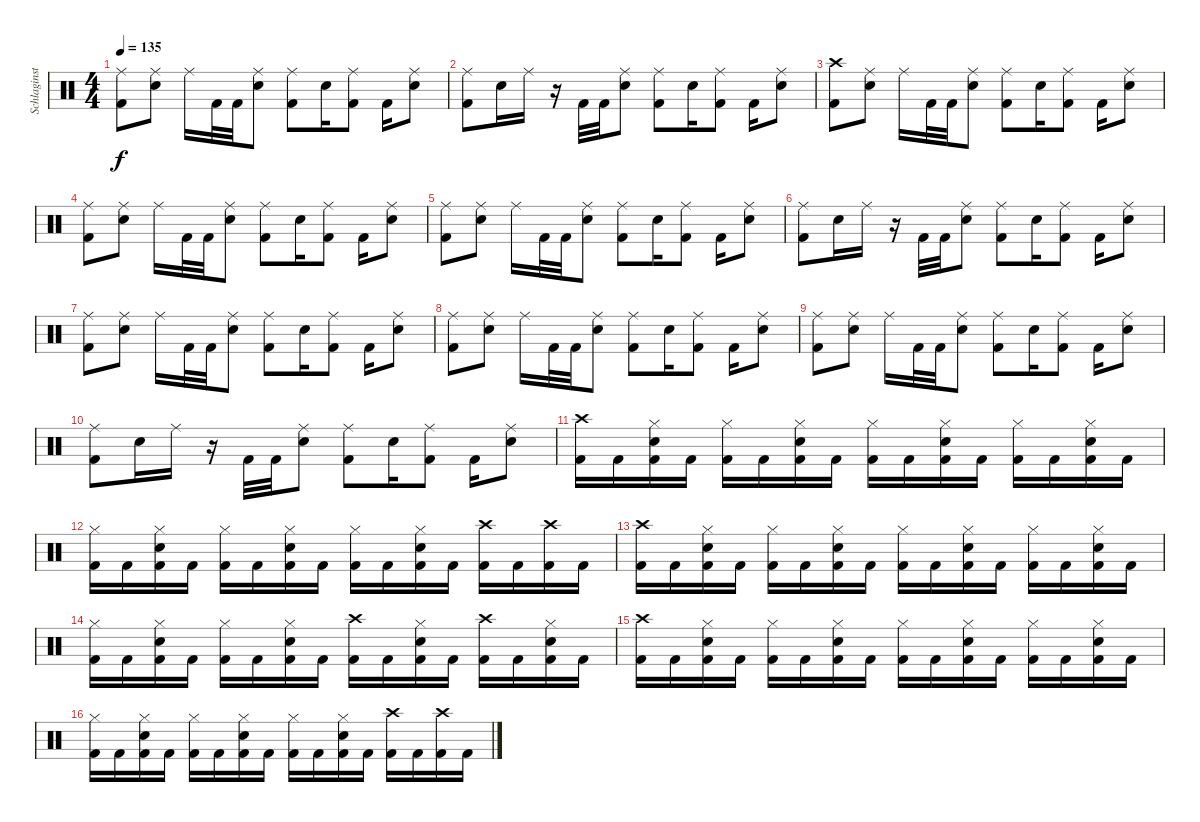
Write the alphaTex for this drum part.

\track ("Schlaginstrumente - Auswahl" "Schlaginst") {instrument percussion}
\staff {score}
\articulation defaults
\ts (4 4)
\tempo 135
\clef neutral
\ks c
("Ride (middle)" "Kick (hit) 2").8{dy f} ("Ride (middle)" "Snare (hit) 2").8 "Ride (middle)".16 "Kick (hit) 2".32 "Kick (hit) 2".32 ("Ride (middle)" "Snare (hit) 2").8 ("Ride (middle)" "Kick (hit) 2").8 "Snare (hit) 2".16 ("Ride (middle)" "Kick (hit) 2").8 "Kick (hit) 2".16 ("Ride (middle)" "Snare (hit) 2").8 |
("Ride (middle)" "Kick (hit) 2").8 "Snare (hit) 2".16 "Ride (middle)".16 r.16 "Kick (hit) 2".32 "Kick (hit) 2".32 ("Ride (middle)" "Snare (hit) 2").8 ("Ride (middle)" "Kick (hit) 2").8 "Snare (hit) 2".16 ("Ride (middle)" "Kick (hit) 2").8 "Kick (hit) 2".16 ("Ride (middle)" "Snare (hit) 2").8 |
("Crash high (hit)" "Kick (hit) 2").8 ("Ride (middle)" "Snare (hit) 2").8 "Ride (middle)".16 "Kick (hit) 2".32 "Kick (hit) 2".32 ("Ride (middle)" "Snare (hit) 2").8 ("Ride (middle)" "Kick (hit) 2").8 "Snare (hit) 2".16 ("Ride (middle)" "Kick (hit) 2").8 "Kick (hit) 2".16 ("Ride (middle)" "Snare (hit) 2").8 |
("Ride (middle)" "Kick (hit) 2").8 ("Ride (middle)" "Snare (hit) 2").8 "Ride (middle)".16 "Kick (hit) 2".32 "Kick (hit) 2".32 ("Ride (middle)" "Snare (hit) 2").8 ("Ride (middle)" "Kick (hit) 2").8 "Snare (hit) 2".16 ("Ride (middle)" "Kick (hit) 2").8 "Kick (hit) 2".16 ("Ride (middle)" "Snare (hit) 2").8 |
("Ride (middle)" "Kick (hit) 2").8 ("Ride (middle)" "Snare (hit) 2").8 "Ride (middle)".16 "Kick (hit) 2".32 "Kick (hit) 2".32 ("Ride (middle)" "Snare (hit) 2").8 ("Ride (middle)" "Kick (hit) 2").8 "Snare (hit) 2".16 ("Ride (middle)" "Kick (hit) 2").8 "Kick (hit) 2".16 ("Ride (middle)" "Snare (hit) 2").8 |
("Ride (middle)" "Kick (hit) 2").8 "Snare (hit) 2".16 "Ride (middle)".16 r.16 "Kick (hit) 2".32 "Kick (hit) 2".32 ("Ride (middle)" "Snare (hit) 2").8 ("Ride (middle)" "Kick (hit) 2").8 "Snare (hit) 2".16 ("Ride (middle)" "Kick (hit) 2").8 "Kick (hit) 2".16 ("Ride (middle)" "Snare (hit) 2").8 |
("Ride (middle)" "Kick (hit) 2").8 ("Ride (middle)" "Snare (hit) 2").8 "Ride (middle)".16 "Kick (hit) 2".32 "Kick (hit) 2".32 ("Ride (middle)" "Snare (hit) 2").8 ("Ride (middle)" "Kick (hit) 2").8 "Snare (hit) 2".16 ("Ride (middle)" "Kick (hit) 2").8 "Kick (hit) 2".16 ("Ride (middle)" "Snare (hit) 2").8 |
("Ride (middle)" "Kick (hit) 2").8 ("Ride (middle)" "Snare (hit) 2").8 "Ride (middle)".16 "Kick (hit) 2".32 "Kick (hit) 2".32 ("Ride (middle)" "Snare (hit) 2").8 ("Ride (middle)" "Kick (hit) 2").8 "Snare (hit) 2".16 ("Ride (middle)" "Kick (hit) 2").8 "Kick (hit) 2".16 ("Ride (middle)" "Snare (hit) 2").8 |
("Ride (middle)" "Kick (hit) 2").8 ("Ride (middle)" "Snare (hit) 2").8 "Ride (middle)".16 "Kick (hit) 2".32 "Kick (hit) 2".32 ("Ride (middle)" "Snare (hit) 2").8 ("Ride (middle)" "Kick (hit) 2").8 "Snare (hit) 2".16 ("Ride (middle)" "Kick (hit) 2").8 "Kick (hit) 2".16 ("Ride (middle)" "Snare (hit) 2").8 |
("Ride (middle)" "Kick (hit) 2").8 "Snare (hit) 2".16 "Ride (middle)".16 r.16 "Kick (hit) 2".32 "Kick (hit) 2".32 ("Ride (middle)" "Snare (hit) 2").8 ("Ride (middle)" "Kick (hit) 2").8 "Snare (hit) 2".16 ("Ride (middle)" "Kick (hit) 2").8 "Kick (hit) 2".16 ("Ride (middle)" "Snare (hit) 2").8 |
("Crash high (hit)" "Kick (hit) 2").16 "Kick (hit) 2".16 ("Hi-Hat (closed)" "Snare (hit) 2" "Kick (hit) 2").16 "Kick (hit) 2".16 ("Hi-Hat (closed)" "Kick (hit) 2").16 "Kick (hit) 2".16 ("Hi-Hat (closed)" "Snare (hit) 2" "Kick (hit) 2").16 "Kick (hit) 2".16 ("Hi-Hat (closed)" "Kick (hit) 2").16 "Kick (hit) 2".16 ("Hi-Hat (closed)" "Snare (hit) 2" "Kick (hit) 2").16 "Kick (hit) 2".16 ("Hi-Hat (closed)" "Kick (hit) 2").16 "Kick (hit) 2".16 ("Hi-Hat (closed)" "Snare (hit) 2" "Kick (hit) 2").16 "Kick (hit) 2".16 |
("Hi-Hat (closed)" "Kick (hit) 2").16 "Kick (hit) 2".16 ("Hi-Hat (closed)" "Snare (hit) 2" "Kick (hit) 2").16 "Kick (hit) 2".16 ("Hi-Hat (closed)" "Kick (hit) 2").16 "Kick (hit) 2".16 ("Hi-Hat (closed)" "Snare (hit) 2" "Kick (hit) 2").16 "Kick (hit) 2".16 ("Hi-Hat (closed)" "Kick (hit) 2").16 "Kick (hit) 2".16 ("Hi-Hat (closed)" "Snare (hit) 2" "Kick (hit) 2").16 "Kick (hit) 2".16 ("Crash high (hit)" "Kick (hit) 2").16 "Kick (hit) 2".16 ("Crash high (hit)" "Kick (hit) 2").16 "Kick (hit) 2".16 |
("Crash high (hit)" "Kick (hit) 2").16 "Kick (hit) 2".16 ("Hi-Hat (closed)" "Snare (hit) 2" "Kick (hit) 2").16 "Kick (hit) 2".16 ("Hi-Hat (closed)" "Kick (hit) 2").16 "Kick (hit) 2".16 ("Hi-Hat (closed)" "Snare (hit) 2" "Kick (hit) 2").16 "Kick (hit) 2".16 ("Hi-Hat (closed)" "Kick (hit) 2").16 "Kick (hit) 2".16 ("Hi-Hat (closed)" "Snare (hit) 2" "Kick (hit) 2").16 "Kick (hit) 2".16 ("Hi-Hat (closed)" "Kick (hit) 2").16 "Kick (hit) 2".16 ("Hi-Hat (closed)" "Snare (hit) 2" "Kick (hit) 2").16 "Kick (hit) 2".16 |
("Hi-Hat (closed)" "Kick (hit) 2").16 "Kick (hit) 2".16 ("Hi-Hat (closed)" "Snare (hit) 2" "Kick (hit) 2").16 "Kick (hit) 2".16 ("Hi-Hat (closed)" "Kick (hit) 2").16 "Kick (hit) 2".16 ("Hi-Hat (closed)" "Snare (hit) 2" "Kick (hit) 2").16 "Kick (hit) 2".16 ("Crash high (hit)" "Kick (hit) 2").16 "Kick (hit) 2".16 ("Hi-Hat (closed)" "Snare (hit) 2" "Kick (hit) 2").16 "Kick (hit) 2".16 ("Crash high (hit)" "Kick (hit) 2").16 "Kick (hit) 2".16 ("Hi-Hat (closed)" "Snare (hit) 2" "Kick (hit) 2").16 "Kick (hit) 2".16 |
("Crash high (hit)" "Kick (hit) 2").16 "Kick (hit) 2".16 ("Hi-Hat (closed)" "Snare (hit) 2" "Kick (hit) 2").16 "Kick (hit) 2".16 ("Hi-Hat (closed)" "Kick (hit) 2").16 "Kick (hit) 2".16 ("Hi-Hat (closed)" "Snare (hit) 2" "Kick (hit) 2").16 "Kick (hit) 2".16 ("Hi-Hat (closed)" "Kick (hit) 2").16 "Kick (hit) 2".16 ("Hi-Hat (closed)" "Snare (hit) 2" "Kick (hit) 2").16 "Kick (hit) 2".16 ("Hi-Hat (closed)" "Kick (hit) 2").16 "Kick (hit) 2".16 ("Hi-Hat (closed)" "Snare (hit) 2" "Kick (hit) 2").16 "Kick (hit) 2".16 |
("Hi-Hat (closed)" "Kick (hit) 2").16 "Kick (hit) 2".16 ("Hi-Hat (closed)" "Snare (hit) 2" "Kick (hit) 2").16 "Kick (hit) 2".16 ("Hi-Hat (closed)" "Kick (hit) 2").16 "Kick (hit) 2".16 ("Hi-Hat (closed)" "Snare (hit) 2" "Kick (hit) 2").16 "Kick (hit) 2".16 ("Hi-Hat (closed)" "Kick (hit) 2").16 "Kick (hit) 2".16 ("Hi-Hat (closed)" "Snare (hit) 2" "Kick (hit) 2").16 "Kick (hit) 2".16 ("Crash high (hit)" "Kick (hit) 2").16 "Kick (hit) 2".16 ("Crash high (hit)" "Kick (hit) 2").16 "Kick (hit) 2".16
